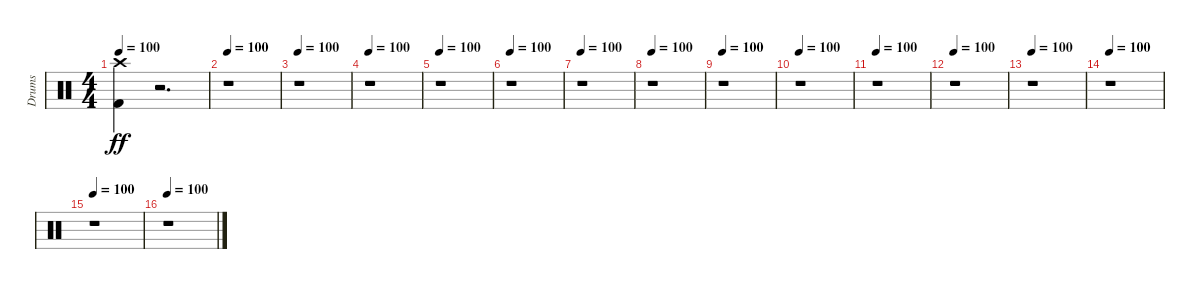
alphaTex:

\track ("Drums" "Drums") {instrument percussion}
\staff {score}
\articulation defaults
\ts (4 4)
\tempo 100
\clef neutral
\ks c
("Crash high (hit)" "Kick (hit) 2").4{dy ff} r.2{d} |
\tempo 100
r.1 |
\tempo 100
r.1 |
\tempo 100
r.1 |
\tempo 100
r.1 |
\tempo 100
r.1 |
\tempo 100
r.1 |
\tempo 100
r.1 |
\tempo 100
r.1 |
\tempo 100
r.1 |
\tempo 100
r.1 |
\tempo 100
r.1 |
\tempo 100
r.1 |
\tempo 100
r.1 |
\tempo 100
r.1 |
\tempo 100
r.1
